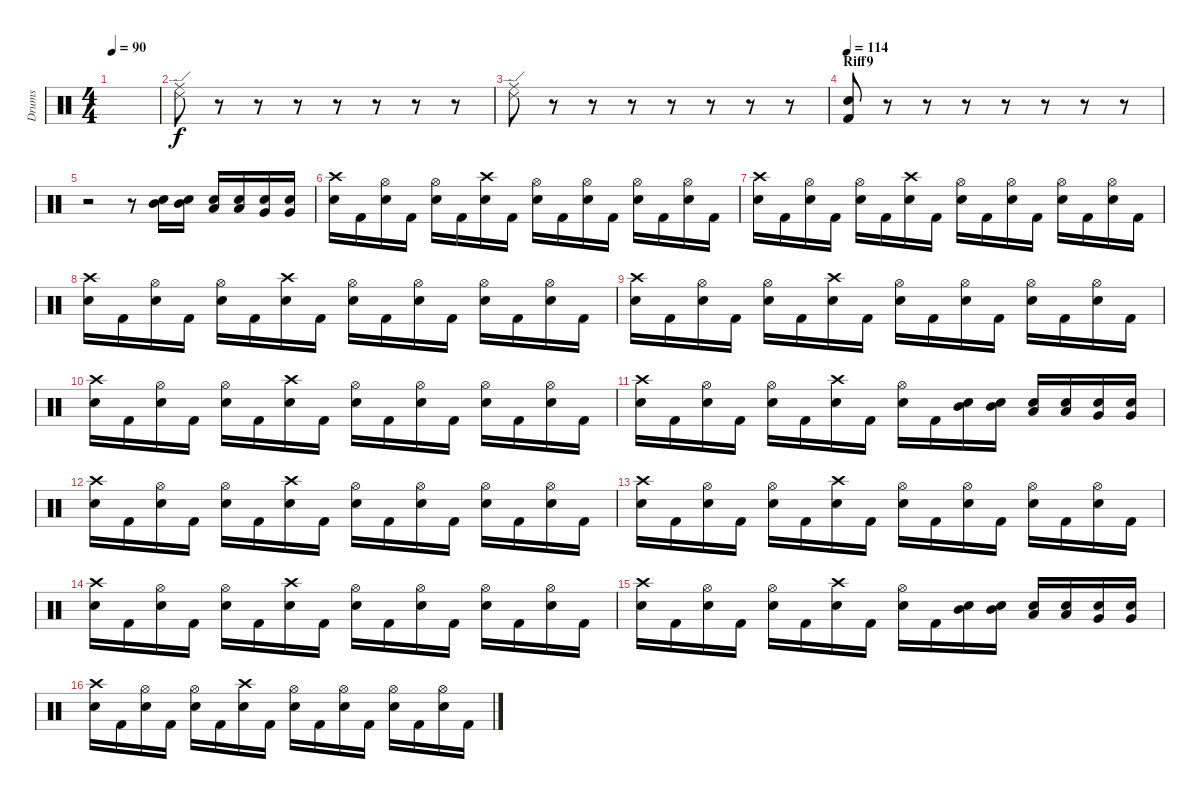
\track ("Drums" "Drums") {instrument percussion}
\staff {score}
\articulation defaults
\ts (4 4)
\tempo 90
\clef neutral
\ks c
|
("Ride (edge) 2" "Ride (middle)").8 r.8 r.8 r.8 r.8 r.8 r.8 r.8 |
("Ride (edge) 2" "Ride (middle)").8 r.8 r.8 r.8 r.8 r.8 r.8 r.8 |
\section ("" "Riff9")
\tempo 114
("Snare (hit) 2" "Kick (hit) 2").8 r.8 r.8 r.8 r.8 r.8 r.8 r.8 |
r.2 r.8 ("Snare (hit) 2" "Mid Tom (hit)").16 ("Snare (hit) 2" "Mid Tom (hit)").16 ("Snare (hit) 2" "Low Tom (hit)").16 ("Snare (hit) 2" "Low Tom (hit)").16 ("Snare (hit) 2" "Very Low Tom (hit)").16 ("Snare (hit) 2" "Very Low Tom (hit)").16 |
("Crash high (hit)" "Snare (hit) 2").16 "Kick (hit) 2".16 ("Hi-Hat (open)" "Snare (hit) 2").16 "Kick (hit) 2".16 ("Hi-Hat (open)" "Snare (hit) 2").16 "Kick (hit) 2".16 ("Crash high (hit)" "Snare (hit) 2").16 "Kick (hit) 2".16 ("Hi-Hat (open)" "Snare (hit) 2").16 "Kick (hit) 2".16 ("Hi-Hat (open)" "Snare (hit) 2").16 "Kick (hit) 2".16 ("Hi-Hat (open)" "Snare (hit) 2").16 "Kick (hit) 2".16 ("Hi-Hat (open)" "Snare (hit) 2").16 "Kick (hit) 2".16 |
("Crash high (hit)" "Snare (hit) 2").16 "Kick (hit) 2".16 ("Hi-Hat (open)" "Snare (hit) 2").16 "Kick (hit) 2".16 ("Hi-Hat (open)" "Snare (hit) 2").16 "Kick (hit) 2".16 ("Crash high (hit)" "Snare (hit) 2").16 "Kick (hit) 2".16 ("Hi-Hat (open)" "Snare (hit) 2").16 "Kick (hit) 2".16 ("Hi-Hat (open)" "Snare (hit) 2").16 "Kick (hit) 2".16 ("Hi-Hat (open)" "Snare (hit) 2").16 "Kick (hit) 2".16 ("Hi-Hat (open)" "Snare (hit) 2").16 "Kick (hit) 2".16 |
("Crash high (hit)" "Snare (hit) 2").16 "Kick (hit) 2".16 ("Hi-Hat (open)" "Snare (hit) 2").16 "Kick (hit) 2".16 ("Hi-Hat (open)" "Snare (hit) 2").16 "Kick (hit) 2".16 ("Crash high (hit)" "Snare (hit) 2").16 "Kick (hit) 2".16 ("Hi-Hat (open)" "Snare (hit) 2").16 "Kick (hit) 2".16 ("Hi-Hat (open)" "Snare (hit) 2").16 "Kick (hit) 2".16 ("Hi-Hat (open)" "Snare (hit) 2").16 "Kick (hit) 2".16 ("Hi-Hat (open)" "Snare (hit) 2").16 "Kick (hit) 2".16 |
("Crash high (hit)" "Snare (hit) 2").16 "Kick (hit) 2".16 ("Hi-Hat (open)" "Snare (hit) 2").16 "Kick (hit) 2".16 ("Hi-Hat (open)" "Snare (hit) 2").16 "Kick (hit) 2".16 ("Crash high (hit)" "Snare (hit) 2").16 "Kick (hit) 2".16 ("Hi-Hat (open)" "Snare (hit) 2").16 "Kick (hit) 2".16 ("Hi-Hat (open)" "Snare (hit) 2").16 "Kick (hit) 2".16 ("Hi-Hat (open)" "Snare (hit) 2").16 "Kick (hit) 2".16 ("Hi-Hat (open)" "Snare (hit) 2").16 "Kick (hit) 2".16 |
("Crash high (hit)" "Snare (hit) 2").16 "Kick (hit) 2".16 ("Hi-Hat (open)" "Snare (hit) 2").16 "Kick (hit) 2".16 ("Hi-Hat (open)" "Snare (hit) 2").16 "Kick (hit) 2".16 ("Crash high (hit)" "Snare (hit) 2").16 "Kick (hit) 2".16 ("Hi-Hat (open)" "Snare (hit) 2").16 "Kick (hit) 2".16 ("Hi-Hat (open)" "Snare (hit) 2").16 "Kick (hit) 2".16 ("Hi-Hat (open)" "Snare (hit) 2").16 "Kick (hit) 2".16 ("Hi-Hat (open)" "Snare (hit) 2").16 "Kick (hit) 2".16 |
("Crash high (hit)" "Snare (hit) 2").16 "Kick (hit) 2".16 ("Hi-Hat (open)" "Snare (hit) 2").16 "Kick (hit) 2".16 ("Hi-Hat (open)" "Snare (hit) 2").16 "Kick (hit) 2".16 ("Crash high (hit)" "Snare (hit) 2").16 "Kick (hit) 2".16 ("Hi-Hat (open)" "Snare (hit) 2").16 "Kick (hit) 2".16 ("Mid Tom (hit)" "Snare (hit) 2").16 ("Mid Tom (hit)" "Snare (hit) 2").16 ("Low Tom (hit)" "Snare (hit) 2").16 ("Low Tom (hit)" "Snare (hit) 2").16 ("Very Low Tom (hit)" "Snare (hit) 2").16 ("Very Low Tom (hit)" "Snare (hit) 2").16 |
("Crash high (hit)" "Snare (hit) 2").16 "Kick (hit) 2".16 ("Hi-Hat (open)" "Snare (hit) 2").16 "Kick (hit) 2".16 ("Hi-Hat (open)" "Snare (hit) 2").16 "Kick (hit) 2".16 ("Crash high (hit)" "Snare (hit) 2").16 "Kick (hit) 2".16 ("Hi-Hat (open)" "Snare (hit) 2").16 "Kick (hit) 2".16 ("Hi-Hat (open)" "Snare (hit) 2").16 "Kick (hit) 2".16 ("Hi-Hat (open)" "Snare (hit) 2").16 "Kick (hit) 2".16 ("Hi-Hat (open)" "Snare (hit) 2").16 "Kick (hit) 2".16 |
("Crash high (hit)" "Snare (hit) 2").16 "Kick (hit) 2".16 ("Hi-Hat (open)" "Snare (hit) 2").16 "Kick (hit) 2".16 ("Hi-Hat (open)" "Snare (hit) 2").16 "Kick (hit) 2".16 ("Crash high (hit)" "Snare (hit) 2").16 "Kick (hit) 2".16 ("Hi-Hat (open)" "Snare (hit) 2").16 "Kick (hit) 2".16 ("Hi-Hat (open)" "Snare (hit) 2").16 "Kick (hit) 2".16 ("Hi-Hat (open)" "Snare (hit) 2").16 "Kick (hit) 2".16 ("Hi-Hat (open)" "Snare (hit) 2").16 "Kick (hit) 2".16 |
("Crash high (hit)" "Snare (hit) 2").16 "Kick (hit) 2".16 ("Hi-Hat (open)" "Snare (hit) 2").16 "Kick (hit) 2".16 ("Hi-Hat (open)" "Snare (hit) 2").16 "Kick (hit) 2".16 ("Crash high (hit)" "Snare (hit) 2").16 "Kick (hit) 2".16 ("Hi-Hat (open)" "Snare (hit) 2").16 "Kick (hit) 2".16 ("Hi-Hat (open)" "Snare (hit) 2").16 "Kick (hit) 2".16 ("Hi-Hat (open)" "Snare (hit) 2").16 "Kick (hit) 2".16 ("Hi-Hat (open)" "Snare (hit) 2").16 "Kick (hit) 2".16 |
("Crash high (hit)" "Snare (hit) 2").16 "Kick (hit) 2".16 ("Hi-Hat (open)" "Snare (hit) 2").16 "Kick (hit) 2".16 ("Hi-Hat (open)" "Snare (hit) 2").16 "Kick (hit) 2".16 ("Crash high (hit)" "Snare (hit) 2").16 "Kick (hit) 2".16 ("Hi-Hat (open)" "Snare (hit) 2").16 "Kick (hit) 2".16 ("Mid Tom (hit)" "Snare (hit) 2").16 ("Mid Tom (hit)" "Snare (hit) 2").16 ("Low Tom (hit)" "Snare (hit) 2").16 ("Low Tom (hit)" "Snare (hit) 2").16 ("Very Low Tom (hit)" "Snare (hit) 2").16 ("Very Low Tom (hit)" "Snare (hit) 2").16 |
("Crash high (hit)" "Snare (hit) 2").16 "Kick (hit) 2".16 ("Hi-Hat (open)" "Snare (hit) 2").16 "Kick (hit) 2".16 ("Hi-Hat (open)" "Snare (hit) 2").16 "Kick (hit) 2".16 ("Crash high (hit)" "Snare (hit) 2").16 "Kick (hit) 2".16 ("Hi-Hat (open)" "Snare (hit) 2").16 "Kick (hit) 2".16 ("Hi-Hat (open)" "Snare (hit) 2").16 "Kick (hit) 2".16 ("Hi-Hat (open)" "Snare (hit) 2").16 "Kick (hit) 2".16 ("Hi-Hat (open)" "Snare (hit) 2").16 "Kick (hit) 2".16
